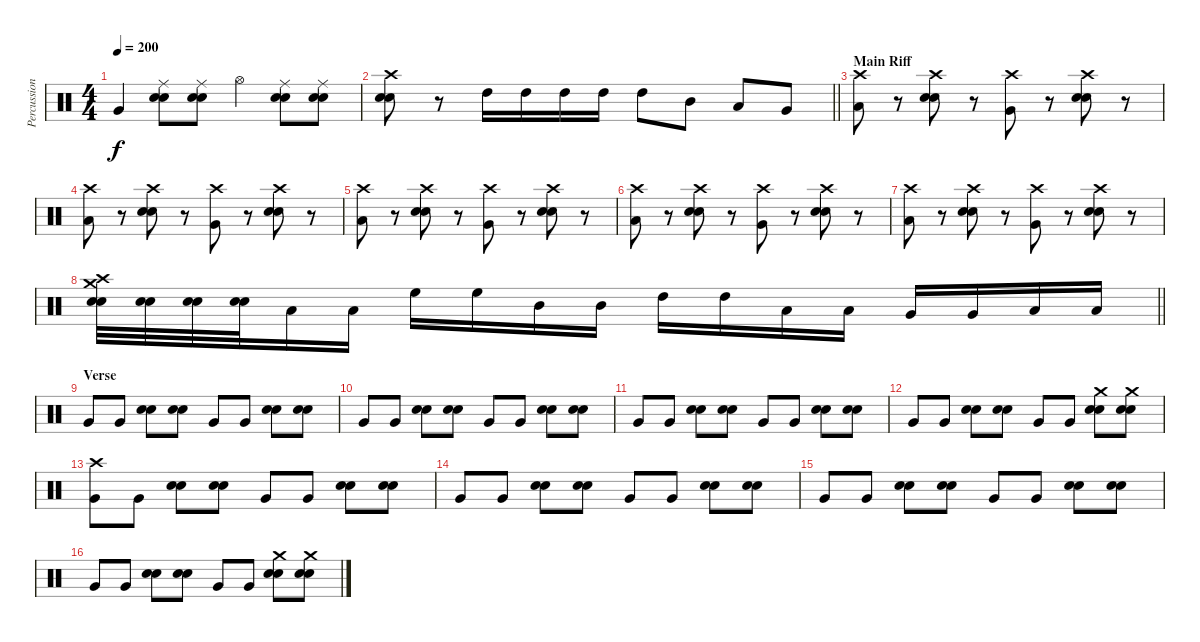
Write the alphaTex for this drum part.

\track ("Percussion" "Percussion") {instrument percussion}
\staff {score}
\articulation defaults
\ts (4 4)
\tempo 200
\clef neutral
\ks c "Very Low Tom (hit)".4{dy f}
("Ride (middle)" "Snare (hit) 2" "Electric Snare (hit)").8 ("Ride (middle)" "Snare (hit) 2" "Electric Snare (hit)").8 "Hi-Hat (open)".4 ("Ride (middle)" "Snare (hit) 2" "Electric Snare (hit)").8 ("Ride (middle)" "Snare (hit) 2" "Electric Snare (hit)").8 |
\barLineRight lightlight
("Crash high (hit)" "Electric Snare (hit)" "Snare (hit) 2").8 r.8 "High Tom (hit)".16 "High Tom (hit)".16 "High Tom (hit)".16 "High Tom (hit)".16 "High Tom (hit)".8 "Mid Tom (hit)".8 "Low Tom (hit)".8 "Very Low Tom (hit)".8 |
\section ("" "Main Riff")
("Crash high (hit)" "Low Floor Tom (hit)").8 r.8 ("Crash high (hit)" "Snare (hit) 2" "Electric Snare (hit)").8 r.8 ("Crash high (hit)" "Very Low Tom (hit)").8 r.8 ("Crash high (hit)" "Snare (hit) 2" "Electric Snare (hit)").8 r.8 |
("Crash high (hit)" "Low Floor Tom (hit)").8 r.8 ("Crash high (hit)" "Snare (hit) 2" "Electric Snare (hit)").8 r.8 ("Crash high (hit)" "Very Low Tom (hit)").8 r.8 ("Crash high (hit)" "Snare (hit) 2" "Electric Snare (hit)").8 r.8 |
("Crash high (hit)" "Low Floor Tom (hit)").8 r.8 ("Crash high (hit)" "Snare (hit) 2" "Electric Snare (hit)").8 r.8 ("Crash high (hit)" "Very Low Tom (hit)").8 r.8 ("Crash high (hit)" "Snare (hit) 2" "Electric Snare (hit)").8 r.8 |
("Crash high (hit)" "Low Floor Tom (hit)").8 r.8 ("Crash high (hit)" "Snare (hit) 2" "Electric Snare (hit)").8 r.8 ("Crash high (hit)" "Very Low Tom (hit)").8 r.8 ("Crash high (hit)" "Snare (hit) 2" "Electric Snare (hit)").8 r.8 |
("Crash high (hit)" "Low Floor Tom (hit)").8 r.8 ("Crash high (hit)" "Snare (hit) 2" "Electric Snare (hit)").8 r.8 ("Crash high (hit)" "Very Low Tom (hit)").8 r.8 ("Crash high (hit)" "Snare (hit) 2" "Electric Snare (hit)").8 r.8 |
\barLineRight lightlight
("Crash high (hit)" "Crash medium (hit)" "Snare (hit) 2" "Electric Snare (hit)").32 ("Snare (hit) 2" "Electric Snare (hit)").32 ("Snare (hit) 2" "Electric Snare (hit)").32 ("Snare (hit) 2" "Electric Snare (hit)").32 "Low Tom (hit)".16 "Low Tom (hit)".16 "High Floor Tom (hit)".16 "High Floor Tom (hit)".16 "Mid Tom (hit)".16 "Mid Tom (hit)".16 "High Tom (hit)".16 "High Tom (hit)".16 "Low Tom (hit)".16 "Low Tom (hit)".16 "Very Low Tom (hit)".16 "Very Low Tom (hit)".16 "Low Floor Tom (hit)".16 "Low Floor Tom (hit)".16 |
\section ("" "Verse")
"Very Low Tom (hit)".8 "Very Low Tom (hit)".8 ("Snare (hit) 2" "Electric Snare (hit)").8 ("Snare (hit) 2" "Electric Snare (hit)").8 "Very Low Tom (hit)".8 "Very Low Tom (hit)".8 ("Snare (hit) 2" "Electric Snare (hit)").8 ("Snare (hit) 2" "Electric Snare (hit)").8 |
"Very Low Tom (hit)".8 "Very Low Tom (hit)".8 ("Snare (hit) 2" "Electric Snare (hit)").8 ("Snare (hit) 2" "Electric Snare (hit)").8 "Very Low Tom (hit)".8 "Very Low Tom (hit)".8 ("Snare (hit) 2" "Electric Snare (hit)").8 ("Snare (hit) 2" "Electric Snare (hit)").8 |
"Very Low Tom (hit)".8 "Very Low Tom (hit)".8 ("Snare (hit) 2" "Electric Snare (hit)").8 ("Snare (hit) 2" "Electric Snare (hit)").8 "Very Low Tom (hit)".8 "Very Low Tom (hit)".8 ("Snare (hit) 2" "Electric Snare (hit)").8 ("Snare (hit) 2" "Electric Snare (hit)").8 |
"Very Low Tom (hit)".8 "Very Low Tom (hit)".8 ("Snare (hit) 2" "Electric Snare (hit)").8 ("Snare (hit) 2" "Electric Snare (hit)").8 "Very Low Tom (hit)".8 "Very Low Tom (hit)".8 ("Crash medium (hit)" "Snare (hit) 2" "Electric Snare (hit)").8 ("Crash medium (hit)" "Snare (hit) 2" "Electric Snare (hit)").8 |
("Crash high (hit)" "Very Low Tom (hit)").8 "Very Low Tom (hit)".8 ("Snare (hit) 2" "Electric Snare (hit)").8 ("Snare (hit) 2" "Electric Snare (hit)").8 "Very Low Tom (hit)".8 "Very Low Tom (hit)".8 ("Snare (hit) 2" "Electric Snare (hit)").8 ("Snare (hit) 2" "Electric Snare (hit)").8 |
"Very Low Tom (hit)".8 "Very Low Tom (hit)".8 ("Snare (hit) 2" "Electric Snare (hit)").8 ("Snare (hit) 2" "Electric Snare (hit)").8 "Very Low Tom (hit)".8 "Very Low Tom (hit)".8 ("Snare (hit) 2" "Electric Snare (hit)").8 ("Snare (hit) 2" "Electric Snare (hit)").8 |
"Very Low Tom (hit)".8 "Very Low Tom (hit)".8 ("Snare (hit) 2" "Electric Snare (hit)").8 ("Snare (hit) 2" "Electric Snare (hit)").8 "Very Low Tom (hit)".8 "Very Low Tom (hit)".8 ("Snare (hit) 2" "Electric Snare (hit)").8 ("Snare (hit) 2" "Electric Snare (hit)").8 |
"Very Low Tom (hit)".8 "Very Low Tom (hit)".8 ("Snare (hit) 2" "Electric Snare (hit)").8 ("Snare (hit) 2" "Electric Snare (hit)").8 "Very Low Tom (hit)".8 "Very Low Tom (hit)".8 ("Crash medium (hit)" "Snare (hit) 2" "Electric Snare (hit)").8 ("Crash medium (hit)" "Snare (hit) 2" "Electric Snare (hit)").8
